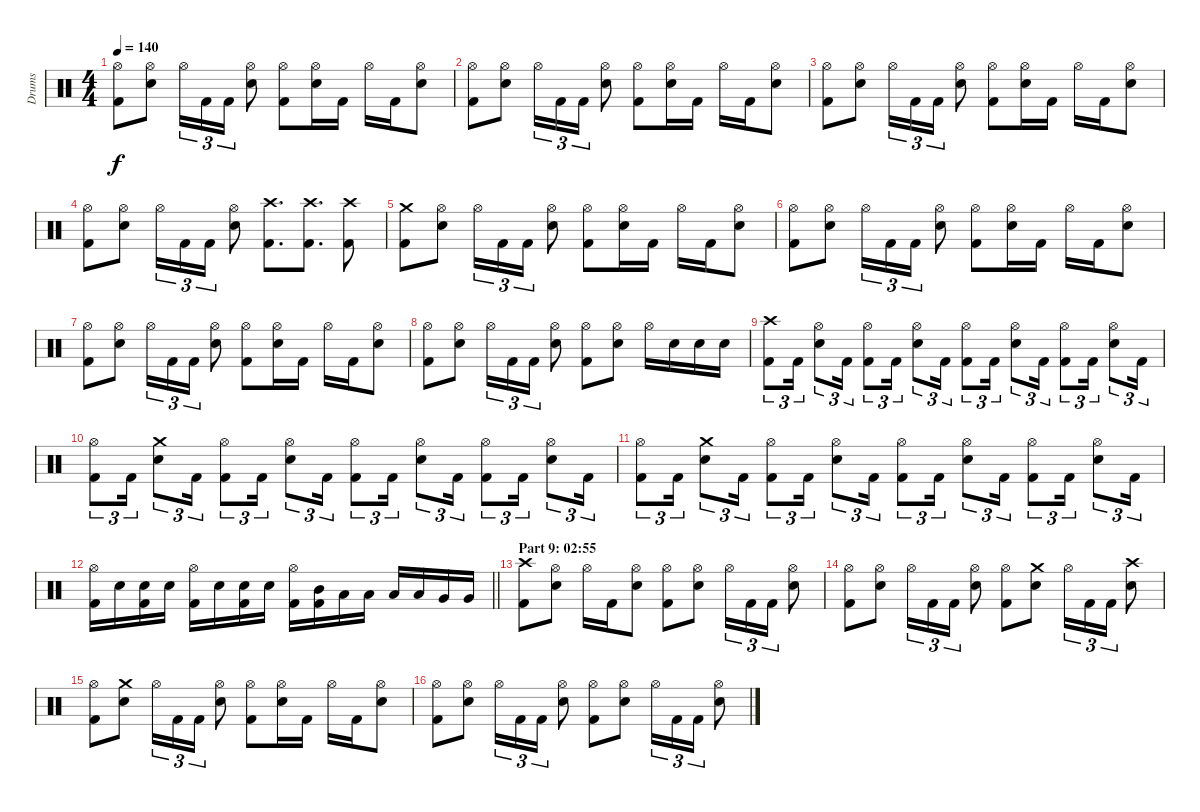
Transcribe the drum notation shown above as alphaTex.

\track ("Drums" "Drums") {instrument percussion}
\staff {score}
\articulation defaults
\ts (4 4)
\tempo 140
\clef neutral
\ks c
("Hi-Hat (open)" "Kick (hit) 2").8{dy f} ("Hi-Hat (open)" "Electric Snare (hit)").8 "Hi-Hat (open)".16{tu (3 2)} "Kick (hit) 2".16{tu (3 2)} "Kick (hit) 2".16{tu (3 2)} ("Hi-Hat (open)" "Electric Snare (hit)").8 ("Hi-Hat (open)" "Kick (hit) 2").8 ("Hi-Hat (open)" "Electric Snare (hit)").16 "Kick (hit) 2".16 "Hi-Hat (open)".16 "Kick (hit) 2".16 ("Hi-Hat (open)" "Electric Snare (hit)").8 |
("Hi-Hat (open)" "Kick (hit) 2").8 ("Hi-Hat (open)" "Electric Snare (hit)").8 "Hi-Hat (open)".16{tu (3 2)} "Kick (hit) 2".16{tu (3 2)} "Kick (hit) 2".16{tu (3 2)} ("Hi-Hat (open)" "Electric Snare (hit)").8 ("Hi-Hat (open)" "Kick (hit) 2").8 ("Hi-Hat (open)" "Electric Snare (hit)").16 "Kick (hit) 2".16 "Hi-Hat (open)".16 "Kick (hit) 2".16 ("Hi-Hat (open)" "Electric Snare (hit)").8 |
("Hi-Hat (open)" "Kick (hit) 2").8 ("Hi-Hat (open)" "Electric Snare (hit)").8 "Hi-Hat (open)".16{tu (3 2)} "Kick (hit) 2".16{tu (3 2)} "Kick (hit) 2".16{tu (3 2)} ("Hi-Hat (open)" "Electric Snare (hit)").8 ("Hi-Hat (open)" "Kick (hit) 2").8 ("Hi-Hat (open)" "Electric Snare (hit)").16 "Kick (hit) 2".16 "Hi-Hat (open)".16 "Kick (hit) 2".16 ("Hi-Hat (open)" "Electric Snare (hit)").8 |
("Hi-Hat (open)" "Kick (hit) 2").8 ("Hi-Hat (open)" "Electric Snare (hit)").8 "Hi-Hat (open)".16{tu (3 2)} "Kick (hit) 2".16{tu (3 2)} "Kick (hit) 2".16{tu (3 2)} ("Hi-Hat (open)" "Electric Snare (hit)").8 ("Crash high (hit)" "Kick (hit) 2").8{d} ("Crash high (hit)" "Kick (hit) 2").8{d} ("Crash high (hit)" "Kick (hit) 2").8 |
("Crash medium (hit)" "Kick (hit) 2").8 ("Hi-Hat (open)" "Electric Snare (hit)").8 "Hi-Hat (open)".16{tu (3 2)} "Kick (hit) 2".16{tu (3 2)} "Kick (hit) 2".16{tu (3 2)} ("Hi-Hat (open)" "Electric Snare (hit)").8 ("Hi-Hat (open)" "Kick (hit) 2").8 ("Hi-Hat (open)" "Electric Snare (hit)").16 "Kick (hit) 2".16 "Hi-Hat (open)".16 "Kick (hit) 2".16 ("Hi-Hat (open)" "Electric Snare (hit)").8 |
("Hi-Hat (open)" "Kick (hit) 2").8 ("Hi-Hat (open)" "Electric Snare (hit)").8 "Hi-Hat (open)".16{tu (3 2)} "Kick (hit) 2".16{tu (3 2)} "Kick (hit) 2".16{tu (3 2)} ("Hi-Hat (open)" "Electric Snare (hit)").8 ("Hi-Hat (open)" "Kick (hit) 2").8 ("Hi-Hat (open)" "Electric Snare (hit)").16 "Kick (hit) 2".16 "Hi-Hat (open)".16 "Kick (hit) 2".16 ("Hi-Hat (open)" "Electric Snare (hit)").8 |
("Hi-Hat (open)" "Kick (hit) 2").8 ("Hi-Hat (open)" "Electric Snare (hit)").8 "Hi-Hat (open)".16{tu (3 2)} "Kick (hit) 2".16{tu (3 2)} "Kick (hit) 2".16{tu (3 2)} ("Hi-Hat (open)" "Electric Snare (hit)").8 ("Hi-Hat (open)" "Kick (hit) 2").8 ("Hi-Hat (open)" "Electric Snare (hit)").16 "Kick (hit) 2".16 "Hi-Hat (open)".16 "Kick (hit) 2".16 ("Hi-Hat (open)" "Electric Snare (hit)").8 |
("Hi-Hat (open)" "Kick (hit) 2").8 ("Hi-Hat (open)" "Electric Snare (hit)").8 "Hi-Hat (open)".16{tu (3 2)} "Kick (hit) 2".16{tu (3 2)} "Kick (hit) 2".16{tu (3 2)} ("Hi-Hat (open)" "Electric Snare (hit)").8 ("Hi-Hat (open)" "Kick (hit) 2").8 ("Hi-Hat (open)" "Electric Snare (hit)").8 "Hi-Hat (open)".16 "Electric Snare (hit)".16 "Electric Snare (hit)".16 "Electric Snare (hit)".16 |
("Crash high (hit)" "Kick (hit) 2").8{tu (3 2)} "Kick (hit) 2".16{tu (3 2)} ("Hi-Hat (open)" "Electric Snare (hit)").8{tu (3 2)} "Kick (hit) 2".16{tu (3 2)} ("Hi-Hat (open)" "Kick (hit) 2").8{tu (3 2)} "Kick (hit) 2".16{tu (3 2)} ("Hi-Hat (open)" "Electric Snare (hit)").8{tu (3 2)} "Kick (hit) 2".16{tu (3 2)} ("Hi-Hat (open)" "Kick (hit) 2").8{tu (3 2)} "Kick (hit) 2".16{tu (3 2)} ("Hi-Hat (open)" "Electric Snare (hit)").8{tu (3 2)} "Kick (hit) 2".16{tu (3 2)} ("Hi-Hat (open)" "Kick (hit) 2").8{tu (3 2)} "Kick (hit) 2".16{tu (3 2)} ("Hi-Hat (open)" "Electric Snare (hit)").8{tu (3 2)} "Kick (hit) 2".16{tu (3 2)} |
("Hi-Hat (open)" "Kick (hit) 2").8{tu (3 2)} "Kick (hit) 2".16{tu (3 2)} ("Crash medium (hit)" "Electric Snare (hit)").8{tu (3 2)} "Kick (hit) 2".16{tu (3 2)} ("Hi-Hat (open)" "Kick (hit) 2").8{tu (3 2)} "Kick (hit) 2".16{tu (3 2)} ("Hi-Hat (open)" "Electric Snare (hit)").8{tu (3 2)} "Kick (hit) 2".16{tu (3 2)} ("Hi-Hat (open)" "Kick (hit) 2").8{tu (3 2)} "Kick (hit) 2".16{tu (3 2)} ("Hi-Hat (open)" "Electric Snare (hit)").8{tu (3 2)} "Kick (hit) 2".16{tu (3 2)} ("Hi-Hat (open)" "Kick (hit) 2").8{tu (3 2)} "Kick (hit) 2".16{tu (3 2)} ("Hi-Hat (open)" "Electric Snare (hit)").8{tu (3 2)} "Kick (hit) 2".16{tu (3 2)} |
("Hi-Hat (open)" "Kick (hit) 2").8{tu (3 2)} "Kick (hit) 2".16{tu (3 2)} ("Crash medium (hit)" "Electric Snare (hit)").8{tu (3 2)} "Kick (hit) 2".16{tu (3 2)} ("Hi-Hat (open)" "Kick (hit) 2").8{tu (3 2)} "Kick (hit) 2".16{tu (3 2)} ("Hi-Hat (open)" "Electric Snare (hit)").8{tu (3 2)} "Kick (hit) 2".16{tu (3 2)} ("Hi-Hat (open)" "Kick (hit) 2").8{tu (3 2)} "Kick (hit) 2".16{tu (3 2)} ("Hi-Hat (open)" "Electric Snare (hit)").8{tu (3 2)} "Kick (hit) 2".16{tu (3 2)} ("Hi-Hat (open)" "Kick (hit) 2").8{tu (3 2)} "Kick (hit) 2".16{tu (3 2)} ("Hi-Hat (open)" "Electric Snare (hit)").8{tu (3 2)} "Kick (hit) 2".16{tu (3 2)} |
\barLineRight lightlight
("Hi-Hat (open)" "Kick (hit) 2").16 "Electric Snare (hit)".16 ("Electric Snare (hit)" "Kick (hit) 2").16 "Electric Snare (hit)".16 ("Hi-Hat (open)" "Kick (hit) 2").16 "Electric Snare (hit)".16 ("Electric Snare (hit)" "Kick (hit) 2").16 "Electric Snare (hit)".16 ("Hi-Hat (open)" "Kick (hit) 2").16 ("Mid Tom (hit)" "Kick (hit) 2").16 "Low Tom (hit)".16 "Low Tom (hit)".16 "Low Tom (hit)".16 "Low Tom (hit)".16 "Very Low Tom (hit)".16 "Very Low Tom (hit)".16 |
\section ("" "Part 9: 02:55")
("Crash high (hit)" "Kick (hit) 2").8 ("Hi-Hat (open)" "Electric Snare (hit)").8 "Hi-Hat (open)".16 "Kick (hit) 2".16 ("Hi-Hat (open)" "Electric Snare (hit)").8 ("Hi-Hat (open)" "Kick (hit) 2").8 ("Hi-Hat (open)" "Electric Snare (hit)").8 "Hi-Hat (open)".16{tu (3 2)} "Kick (hit) 2".16{tu (3 2)} "Kick (hit) 2".16{tu (3 2)} ("Hi-Hat (open)" "Electric Snare (hit)").8 |
("Hi-Hat (open)" "Kick (hit) 2").8 ("Hi-Hat (open)" "Electric Snare (hit)").8 "Hi-Hat (open)".16{tu (3 2)} "Kick (hit) 2".16{tu (3 2)} "Kick (hit) 2".16{tu (3 2)} ("Hi-Hat (open)" "Electric Snare (hit)").8 ("Hi-Hat (open)" "Kick (hit) 2").8 ("Crash medium (hit)" "Electric Snare (hit)").8 "Hi-Hat (open)".16{tu (3 2)} "Kick (hit) 2".16{tu (3 2)} "Kick (hit) 2".16{tu (3 2)} ("Crash high (hit)" "Electric Snare (hit)").8 |
("Hi-Hat (open)" "Kick (hit) 2").8 ("Crash medium (hit)" "Electric Snare (hit)").8 "Hi-Hat (open)".16{tu (3 2)} "Kick (hit) 2".16{tu (3 2)} "Kick (hit) 2".16{tu (3 2)} ("Hi-Hat (open)" "Electric Snare (hit)").8 ("Hi-Hat (open)" "Kick (hit) 2").8 ("Hi-Hat (open)" "Electric Snare (hit)").16 "Kick (hit) 2".16 "Hi-Hat (open)".16 "Kick (hit) 2".16 ("Hi-Hat (open)" "Electric Snare (hit)").8 |
("Hi-Hat (open)" "Kick (hit) 2").8 ("Hi-Hat (open)" "Electric Snare (hit)").8 "Hi-Hat (open)".16{tu (3 2)} "Kick (hit) 2".16{tu (3 2)} "Kick (hit) 2".16{tu (3 2)} ("Hi-Hat (open)" "Electric Snare (hit)").8 ("Hi-Hat (open)" "Kick (hit) 2").8 ("Hi-Hat (open)" "Electric Snare (hit)").8 "Hi-Hat (open)".16{tu (3 2)} "Kick (hit) 2".16{tu (3 2)} "Kick (hit) 2".16{tu (3 2)} ("Hi-Hat (open)" "Electric Snare (hit)").8
